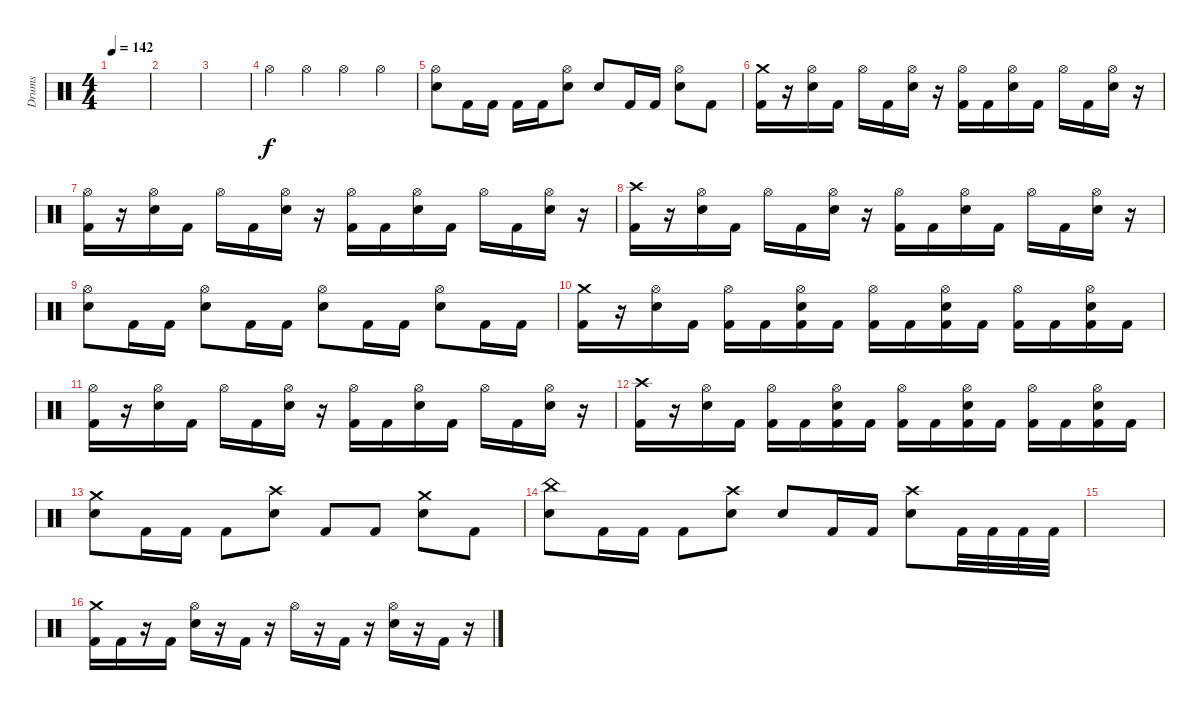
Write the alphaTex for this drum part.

\track ("Drums" "Drums") {instrument percussion}
\staff
\articulation defaults
\ts (4 4)
\tempo 142
\clef neutral
\ks c
|
|
|
"Hi-Hat (open)".4 "Hi-Hat (open)".4 "Hi-Hat (open)".4 "Hi-Hat (open)".4 |
("Hi-Hat (open)" "Snare (hit) 2").8 "Kick (hit) 2".16 "Kick (hit) 2".16 "Kick (hit) 2".16 "Kick (hit) 2".16 ("Hi-Hat (open)" "Snare (hit) 2").8 "Snare (hit) 2".8 "Kick (hit) 2".16 "Kick (hit) 2".16 ("Hi-Hat (open)" "Snare (hit) 2").8 "Kick (hit) 2".8 |
("Crash medium (hit)" "Kick (hit) 2").16 r.16 ("Hi-Hat (open)" "Snare (hit) 2").16 "Kick (hit) 2".16 "Hi-Hat (open)".16 "Kick (hit) 2".16 ("Hi-Hat (open)" "Snare (hit) 2").16 r.16 ("Hi-Hat (open)" "Kick (hit) 2").16 "Kick (hit) 2".16 ("Hi-Hat (open)" "Snare (hit) 2").16 "Kick (hit) 2".16 "Hi-Hat (open)".16 "Kick (hit) 2".16 ("Hi-Hat (open)" "Snare (hit) 2").16 r.16 |
("Hi-Hat (open)" "Kick (hit) 2").16 r.16 ("Hi-Hat (open)" "Snare (hit) 2").16 "Kick (hit) 2".16 "Hi-Hat (open)".16 "Kick (hit) 2".16 ("Hi-Hat (open)" "Snare (hit) 2").16 r.16 ("Hi-Hat (open)" "Kick (hit) 2").16 "Kick (hit) 2".16 ("Hi-Hat (open)" "Snare (hit) 2").16 "Kick (hit) 2".16 "Hi-Hat (open)".16 "Kick (hit) 2".16 ("Hi-Hat (open)" "Snare (hit) 2").16 r.16 |
("Crash high (hit)" "Kick (hit) 2").16 r.16 ("Hi-Hat (open)" "Snare (hit) 2").16 "Kick (hit) 2".16 "Hi-Hat (open)".16 "Kick (hit) 2".16 ("Hi-Hat (open)" "Snare (hit) 2").16 r.16 ("Hi-Hat (open)" "Kick (hit) 2").16 "Kick (hit) 2".16 ("Hi-Hat (open)" "Snare (hit) 2").16 "Kick (hit) 2".16 "Hi-Hat (open)".16 "Kick (hit) 2".16 ("Hi-Hat (open)" "Snare (hit) 2").16 r.16 |
("Hi-Hat (open)" "Snare (hit) 2").8 "Kick (hit) 2".16 "Kick (hit) 2".16 ("Hi-Hat (open)" "Snare (hit) 2").8 "Kick (hit) 2".16 "Kick (hit) 2".16 ("Hi-Hat (open)" "Snare (hit) 2").8 "Kick (hit) 2".16 "Kick (hit) 2".16 ("Hi-Hat (open)" "Snare (hit) 2").8 "Kick (hit) 2".16 "Kick (hit) 2".16 |
("Crash medium (hit)" "Kick (hit) 2").16 r.16 ("Hi-Hat (open)" "Snare (hit) 2").16 "Kick (hit) 2".16 ("Hi-Hat (open)" "Kick (hit) 2").16 "Kick (hit) 2".16 ("Hi-Hat (open)" "Snare (hit) 2" "Kick (hit) 2").16 "Kick (hit) 2".16 ("Hi-Hat (open)" "Kick (hit) 2").16 "Kick (hit) 2".16 ("Hi-Hat (open)" "Snare (hit) 2" "Kick (hit) 2").16 "Kick (hit) 2".16 ("Hi-Hat (open)" "Kick (hit) 2").16 "Kick (hit) 2".16 ("Hi-Hat (open)" "Snare (hit) 2" "Kick (hit) 2").16 "Kick (hit) 2".16 |
("Hi-Hat (open)" "Kick (hit) 2").16 r.16 ("Hi-Hat (open)" "Snare (hit) 2").16 "Kick (hit) 2".16 "Hi-Hat (open)".16 "Kick (hit) 2".16 ("Hi-Hat (open)" "Snare (hit) 2").16 r.16 ("Hi-Hat (open)" "Kick (hit) 2").16 "Kick (hit) 2".16 ("Hi-Hat (open)" "Snare (hit) 2").16 "Kick (hit) 2".16 "Hi-Hat (open)".16 "Kick (hit) 2".16 ("Hi-Hat (open)" "Snare (hit) 2").16 r.16 |
("Crash high (hit)" "Kick (hit) 2").16 r.16 ("Hi-Hat (open)" "Snare (hit) 2").16 "Kick (hit) 2".16 ("Hi-Hat (open)" "Kick (hit) 2").16 "Kick (hit) 2".16 ("Hi-Hat (open)" "Snare (hit) 2" "Kick (hit) 2").16 "Kick (hit) 2".16 ("Hi-Hat (open)" "Kick (hit) 2").16 "Kick (hit) 2".16 ("Hi-Hat (open)" "Snare (hit) 2" "Kick (hit) 2").16 "Kick (hit) 2".16 ("Hi-Hat (open)" "Kick (hit) 2").16 "Kick (hit) 2".16 ("Hi-Hat (open)" "Snare (hit) 2" "Kick (hit) 2").16 "Kick (hit) 2".16 |
("Crash medium (hit)" "Snare (hit) 2").8 "Kick (hit) 2".16 "Kick (hit) 2".16 "Kick (hit) 2".8 ("Crash high (hit)" "Snare (hit) 2").8 "Kick (hit) 2".8 "Kick (hit) 2".8 ("Crash medium (hit)" "Snare (hit) 2").8 "Kick (hit) 2".8 |
("China (hit)" "Snare (hit) 2").8 "Kick (hit) 2".16 "Kick (hit) 2".16 "Kick (hit) 2".8 ("Crash high (hit)" "Snare (hit) 2").8 "Snare (hit) 2".8 "Kick (hit) 2".16 "Kick (hit) 2".16 ("Crash high (hit)" "Snare (hit) 2").8 "Kick (hit) 2".32 "Kick (hit) 2".32 "Kick (hit) 2".32 "Kick (hit) 2".32 |
|
("Crash medium (hit)" "Kick (hit) 2").16 "Kick (hit) 2".16 r.16 "Kick (hit) 2".16 ("Hi-Hat (open)" "Electric Snare (hit)").16 r.16 "Kick (hit) 2".16 r.16 "Hi-Hat (open)".16 r.16 "Kick (hit) 2".16 r.16 ("Hi-Hat (open)" "Electric Snare (hit)").16 r.16 "Kick (hit) 2".16 r.16
